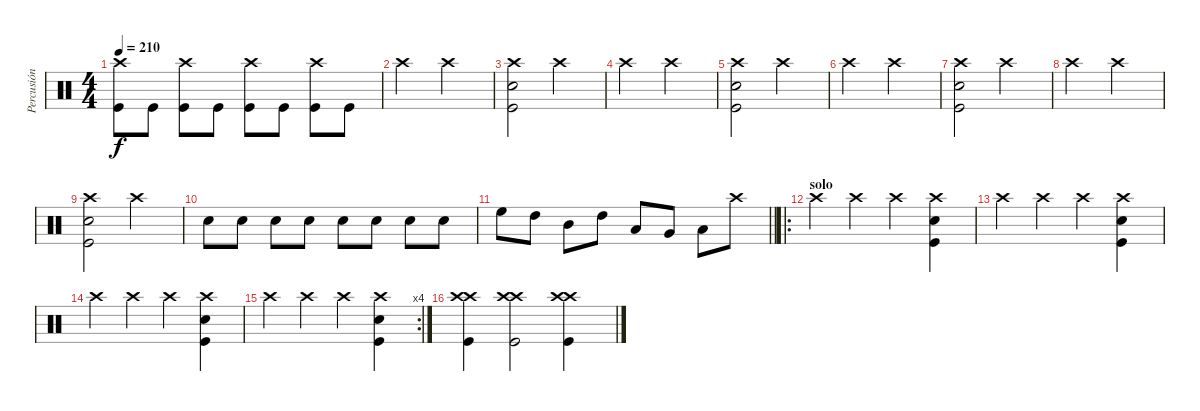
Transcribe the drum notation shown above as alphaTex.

\track ("Percusión" "Percusión") {instrument percussion}
\staff {score}
\articulation defaults
\ts (4 4)
\tempo 210
\clef neutral
\ks c
("Crash high (hit)" "Kick (hit)").8{dy f} "Kick (hit)".8 ("Crash high (hit)" "Kick (hit)").8 "Kick (hit)".8 ("Crash high (hit)" "Kick (hit)").8 "Kick (hit)".8 ("Crash high (hit)" "Kick (hit)").8 "Kick (hit)".8 |
"Crash high (hit)".2 "Crash high (hit)".2 |
("Crash high (hit)" "Electric Snare (hit)" "Kick (hit)").2 "Crash high (hit)".2 |
"Crash high (hit)".2 "Crash high (hit)".2 |
("Crash high (hit)" "Electric Snare (hit)" "Kick (hit)").2 "Crash high (hit)".2 |
"Crash high (hit)".2 "Crash high (hit)".2 |
("Crash high (hit)" "Electric Snare (hit)" "Kick (hit)").2 "Crash high (hit)".2 |
"Crash high (hit)".2 "Crash high (hit)".2 |
("Crash high (hit)" "Electric Snare (hit)" "Kick (hit)").2 "Crash high (hit)".2 |
"Snare (hit) 2".8 "Snare (hit) 2".8 "Snare (hit) 2".8 "Snare (hit) 2".8 "Snare (hit) 2".8 "Snare (hit) 2".8 "Snare (hit) 2".8 "Snare (hit) 2".8 |
\barLineRight lightlight "High Floor Tom (hit)".8 "High Tom (hit)".8 "Mid Tom (hit)".8 "High Tom (hit)".8 "Low Tom (hit)".8 "Very Low Tom (hit)".8 "Low Tom (hit)".8 "Crash high (hit)".8
|
\ro
\section ("" "solo")
"Crash high (hit)".4 "Crash high (hit)".4 "Crash high (hit)".4 ("Crash high (hit)" "Electric Snare (hit)" "Kick (hit)").4 |
"Crash high (hit)".4 "Crash high (hit)".4 "Crash high (hit)".4 ("Crash high (hit)" "Electric Snare (hit)" "Kick (hit)").4 |
"Crash high (hit)".4 "Crash high (hit)".4 "Crash high (hit)".4 ("Crash high (hit)" "Electric Snare (hit)" "Kick (hit)").4 |
\rc 4 "Crash high (hit)".4 "Crash high (hit)".4 "Crash high (hit)".4
("Crash high (hit)" "Electric Snare (hit)" "Kick (hit)").4 |
("Crash high (hit)" "Crash high (hit)" "Kick (hit)").4 ("Crash high (hit)" "Crash high (hit)" "Kick (hit)").2 ("Crash high (hit)" "Crash high (hit)" "Kick (hit)").4
